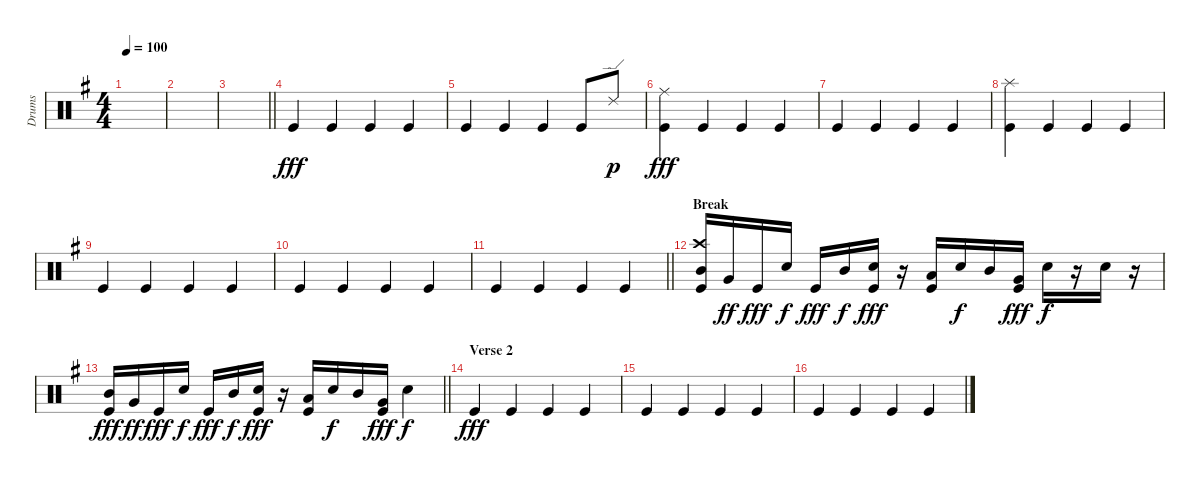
\track ("Drums" "Drums") {instrument percussion}
\staff {score}
\articulation defaults
\ts (4 4)
\tempo 100
\clef neutral
\ks eminor
|
|
\barLineRight lightlight
|
"Kick (hit)".4{dy fff} "Kick (hit)".4 "Kick (hit)".4 "Kick (hit)".4 |
"Kick (hit)".4 "Kick (hit)".4 "Kick (hit)".4 "Kick (hit)".8 "Ride (edge) 2".8{dy p} |
("Ride (middle)" "Kick (hit)").4{dy fff} "Kick (hit)".4 "Kick (hit)".4 "Kick (hit)".4 |
"Kick (hit)".4 "Kick (hit)".4 "Kick (hit)".4 "Kick (hit)".4 |
("Splash (hit)" "Kick (hit)").4 "Kick (hit)".4 "Kick (hit)".4 "Kick (hit)".4 |
"Kick (hit)".4 "Kick (hit)".4 "Kick (hit)".4 "Kick (hit)".4 |
"Kick (hit)".4 "Kick (hit)".4 "Kick (hit)".4 "Kick (hit)".4 |
\barLineRight lightlight "Kick (hit)".4 "Kick (hit)".4 "Kick (hit)".4 "Kick (hit)".4
|
\section ("" "Break")
("Crash high (hit)" "Mid Tom (hit)" "Kick (hit)").16 "Very Low Tom (hit)".16{dy ff} "Kick (hit)".16{dy fff} "Snare (hit) 2".16{dy f} "Kick (hit)".16{dy fff} "Mid Tom (hit)".16{dy f} ("Snare (hit) 2" "Kick (hit)").16{dy fff} r.16 ("Low Floor Tom (hit)" "Kick (hit)").16 "Snare (hit) 2".16{dy f} "Mid Tom (hit)".16 ("Very Low Tom (hit)" "Kick (hit)").16{dy fff} "Snare (hit) 2".16{dy f} r.16 "Snare (hit) 2".16 r.16 |
\barLineRight lightlight
("Mid Tom (hit)" "Kick (hit)").16{dy fff} "Very Low Tom (hit)".16{dy ff} "Kick (hit)".16{dy fff} "Snare (hit) 2".16{dy f} "Kick (hit)".16{dy fff} "Mid Tom (hit)".16{dy f} ("Snare (hit) 2" "Kick (hit)").16{dy fff} r.16 ("Low Floor Tom (hit)" "Kick (hit)").16 "Snare (hit) 2".16{dy f} "Mid Tom (hit)".16 ("Very Low Tom (hit)" "Kick (hit)").16{dy fff} "Snare (hit) 2".4{dy f} |
\section ("" "Verse 2")
"Kick (hit)".4{dy fff} "Kick (hit)".4 "Kick (hit)".4 "Kick (hit)".4 |
"Kick (hit)".4 "Kick (hit)".4 "Kick (hit)".4 "Kick (hit)".4 |
"Kick (hit)".4 "Kick (hit)".4 "Kick (hit)".4 "Kick (hit)".4
